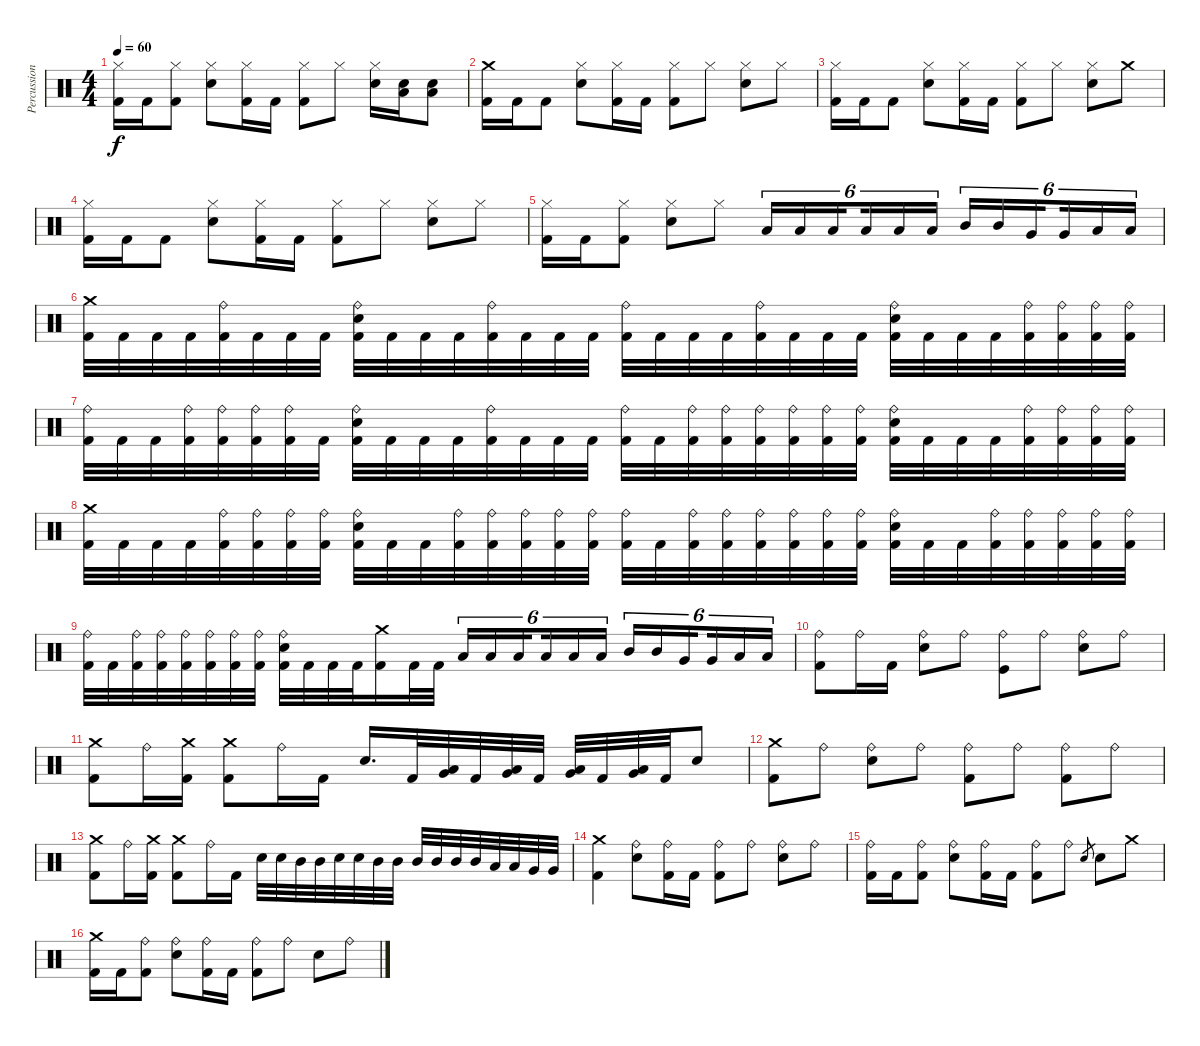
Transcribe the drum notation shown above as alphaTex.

\track ("Percussion" "Percussion") {instrument percussion}
\staff {score}
\articulation defaults
\ts (4 4)
\tempo 60
\clef neutral
\ks c
("Hi-Hat (closed)" "Kick (hit) 2").16{dy f} "Kick (hit) 2".16 ("Hi-Hat (closed)" "Kick (hit) 2").8 ("Hi-Hat (closed)" "Snare (hit) 2").8 ("Hi-Hat (closed)" "Kick (hit) 2").16 "Kick (hit) 2".16 ("Hi-Hat (closed)" "Kick (hit) 2").8 "Hi-Hat (closed)".8 ("Hi-Hat (closed)" "Snare (hit) 2").16 ("Low Tom (hit)" "Snare (hit) 2").16 ("Low Tom (hit)" "Snare (hit) 2").8 |
("Crash medium (hit)" "Kick (hit) 2").16 "Kick (hit) 2".16 "Kick (hit) 2".8 ("Hi-Hat (closed)" "Snare (hit) 2").8 ("Hi-Hat (closed)" "Kick (hit) 2").16 "Kick (hit) 2".16 ("Hi-Hat (closed)" "Kick (hit) 2").8 "Hi-Hat (closed)".8 ("Hi-Hat (closed)" "Snare (hit) 2").8 "Hi-Hat (closed)".8 |
("Hi-Hat (closed)" "Kick (hit) 2").16 "Kick (hit) 2".16 "Kick (hit) 2".8 ("Hi-Hat (closed)" "Snare (hit) 2").8 ("Hi-Hat (closed)" "Kick (hit) 2").16 "Kick (hit) 2".16 ("Hi-Hat (closed)" "Kick (hit) 2").8 "Hi-Hat (closed)".8 ("Hi-Hat (closed)" "Snare (hit) 2").8 "Crash medium (hit)".8 |
("Hi-Hat (closed)" "Kick (hit) 2").16 "Kick (hit) 2".16 "Kick (hit) 2".8 ("Hi-Hat (closed)" "Snare (hit) 2").8 ("Hi-Hat (closed)" "Kick (hit) 2").16 "Kick (hit) 2".16 ("Hi-Hat (closed)" "Kick (hit) 2").8 "Hi-Hat (closed)".8 ("Hi-Hat (closed)" "Snare (hit) 2").8 "Hi-Hat (closed)".8 |
("Hi-Hat (closed)" "Kick (hit) 2").16 "Kick (hit) 2".16 ("Hi-Hat (closed)" "Kick (hit) 2").8 ("Hi-Hat (closed)" "Snare (hit) 2").8 "Hi-Hat (closed)".8 "Low Tom (hit)".16{tu (6 4)} "Low Tom (hit)".16{tu (6 4)} "Low Tom (hit)".16{tu (6 4) beam splitsecondary} "Low Tom (hit)".16{tu (6 4)} "Low Tom (hit)".16{tu (6 4)} "Low Tom (hit)".16{tu (6 4)} "Mid Tom (hit)".16{tu (6 4)} "Mid Tom (hit)".16{tu (6 4)} "Very Low Tom (hit)".16{tu (6 4) beam splitsecondary} "Very Low Tom (hit)".16{tu (6 4)} "Low Floor Tom (hit)".16{tu (6 4)} "Low Floor Tom (hit)".16{tu (6 4)} |
("Crash medium (hit)" "Kick (hit) 2").32 "Kick (hit) 2".32 "Kick (hit) 2".32 "Kick (hit) 2".32 ("Ride (bell)" "Kick (hit) 2").32 "Kick (hit) 2".32 "Kick (hit) 2".32 "Kick (hit) 2".32 ("Ride (bell)" "Snare (hit) 2" "Kick (hit) 2").32 "Kick (hit) 2".32 "Kick (hit) 2".32 "Kick (hit) 2".32 ("Ride (bell)" "Kick (hit) 2").32 "Kick (hit) 2".32 "Kick (hit) 2".32 "Kick (hit) 2".32 ("Ride (bell)" "Kick (hit) 2").32 "Kick (hit) 2".32 "Kick (hit) 2".32 "Kick (hit) 2".32 ("Ride (bell)" "Kick (hit) 2").32 "Kick (hit) 2".32 "Kick (hit) 2".32 "Kick (hit) 2".32 ("Ride (bell)" "Snare (hit) 2" "Kick (hit) 2").32 "Kick (hit) 2".32 "Kick (hit) 2".32 "Kick (hit) 2".32 ("Ride (bell)" "Kick (hit) 2").32 ("Ride (bell)" "Kick (hit) 2").32 ("Ride (bell)" "Kick (hit) 2").32 ("Ride (bell)" "Kick (hit) 2").32 |
("Ride (bell)" "Kick (hit) 2").32 "Kick (hit) 2".32 "Kick (hit) 2".32 ("Ride (bell)" "Kick (hit) 2").32 ("Ride (bell)" "Kick (hit) 2").32 ("Ride (bell)" "Kick (hit) 2").32 ("Ride (bell)" "Kick (hit) 2").32 "Kick (hit) 2".32 ("Ride (bell)" "Snare (hit) 2" "Kick (hit) 2").32 "Kick (hit) 2".32 "Kick (hit) 2".32 "Kick (hit) 2".32 ("Ride (bell)" "Kick (hit) 2").32 "Kick (hit) 2".32 "Kick (hit) 2".32 "Kick (hit) 2".32 ("Ride (bell)" "Kick (hit) 2").32 "Kick (hit) 2".32 ("Ride (bell)" "Kick (hit) 2").32 ("Ride (bell)" "Kick (hit) 2").32 ("Ride (bell)" "Kick (hit) 2").32 ("Ride (bell)" "Kick (hit) 2").32 ("Ride (bell)" "Kick (hit) 2").32 ("Ride (bell)" "Kick (hit) 2").32 ("Ride (bell)" "Snare (hit) 2" "Kick (hit) 2").32 "Kick (hit) 2".32 "Kick (hit) 2".32 "Kick (hit) 2".32 ("Ride (bell)" "Kick (hit) 2").32 ("Ride (bell)" "Kick (hit) 2").32 ("Ride (bell)" "Kick (hit) 2").32 ("Ride (bell)" "Kick (hit) 2").32 |
("Crash medium (hit)" "Kick (hit) 2").32 "Kick (hit) 2".32 "Kick (hit) 2".32 "Kick (hit) 2".32 ("Ride (bell)" "Kick (hit) 2").32 ("Ride (bell)" "Kick (hit) 2").32 ("Ride (bell)" "Kick (hit) 2").32 ("Ride (bell)" "Kick (hit) 2").32 ("Ride (bell)" "Snare (hit) 2" "Kick (hit) 2").32 "Kick (hit) 2".32 "Kick (hit) 2".32 ("Ride (bell)" "Kick (hit) 2").32 ("Ride (bell)" "Kick (hit) 2").32 ("Ride (bell)" "Kick (hit) 2").32 ("Ride (bell)" "Kick (hit) 2").32 ("Ride (bell)" "Kick (hit) 2").32 ("Ride (bell)" "Kick (hit) 2").32 "Kick (hit) 2".32 ("Ride (bell)" "Kick (hit) 2").32 ("Ride (bell)" "Kick (hit) 2").32 ("Ride (bell)" "Kick (hit) 2").32 ("Ride (bell)" "Kick (hit) 2").32 ("Ride (bell)" "Kick (hit) 2").32 ("Ride (bell)" "Kick (hit) 2").32 ("Ride (bell)" "Snare (hit) 2" "Kick (hit) 2").32 "Kick (hit) 2".32 "Kick (hit) 2".32 ("Ride (bell)" "Kick (hit) 2").32 ("Ride (bell)" "Kick (hit) 2").32 ("Ride (bell)" "Kick (hit) 2").32 ("Ride (bell)" "Kick (hit) 2").32 ("Ride (bell)" "Kick (hit) 2").32 |
("Ride (bell)" "Kick (hit) 2").32 "Kick (hit) 2".32 ("Ride (bell)" "Kick (hit) 2").32 ("Ride (bell)" "Kick (hit) 2").32 ("Ride (bell)" "Kick (hit) 2").32 ("Ride (bell)" "Kick (hit) 2").32 ("Ride (bell)" "Kick (hit) 2").32 ("Ride (bell)" "Kick (hit) 2").32 ("Ride (bell)" "Snare (hit) 2" "Kick (hit) 2").32 "Kick (hit) 2".32 "Kick (hit) 2".32 "Kick (hit) 2".32 ("Crash medium (hit)" "Kick (hit) 2").16 "Kick (hit) 2".32 "Kick (hit) 2".32 "Low Tom (hit)".16{tu (6 4)} "Low Tom (hit)".16{tu (6 4)} "Low Tom (hit)".16{tu (6 4) beam splitsecondary} "Low Tom (hit)".16{tu (6 4)} "Low Tom (hit)".16{tu (6 4)} "Low Tom (hit)".16{tu (6 4)} "Mid Tom (hit)".16{tu (6 4)} "Mid Tom (hit)".16{tu (6 4)} "Very Low Tom (hit)".16{tu (6 4) beam splitsecondary} "Very Low Tom (hit)".16{tu (6 4)} "Low Floor Tom (hit)".16{tu (6 4)} "Low Floor Tom (hit)".16{tu (6 4)} |
("Ride (bell)" "Kick (hit) 2").8 "Ride (bell)".16 "Kick (hit) 2".16 ("Ride (bell)" "Snare (hit) 2").8 "Ride (bell)".8 ("Ride (bell)" "Kick (hit)").8 "Ride (bell)".8 ("Ride (bell)" "Snare (hit) 2").8 "Ride (bell)".8 |
("Crash medium (hit)" "Kick (hit) 2").8 "Ride (bell)".16 ("Crash medium (hit)" "Kick (hit) 2").16 ("Crash medium (hit)" "Kick (hit) 2").8 "Ride (bell)".16 "Kick (hit) 2".16 "Snare (hit) 2".16{d} "Kick (hit) 2".32 ("Low Tom (hit)" "Very Low Tom (hit)").32 "Kick (hit) 2".32 ("Low Tom (hit)" "Very Low Tom (hit)").32 "Kick (hit) 2".32 ("Low Tom (hit)" "Very Low Tom (hit)").32 "Kick (hit) 2".32 ("Low Tom (hit)" "Very Low Tom (hit)").32 "Kick (hit) 2".32 "Snare (hit) 2".8 |
("Crash medium (hit)" "Kick (hit) 2").8 "Ride (bell)".8 ("Ride (bell)" "Snare (hit) 2").8 "Ride (bell)".8 ("Ride (bell)" "Kick (hit) 2").8 "Ride (bell)".8 ("Ride (bell)" "Kick (hit) 2").8 "Ride (bell)".8 |
("Crash medium (hit)" "Kick (hit) 2").8 "Ride (bell)".16 ("Crash medium (hit)" "Kick (hit) 2").16 ("Crash medium (hit)" "Kick (hit) 2").8 "Ride (bell)".16 "Kick (hit) 2".16 "Snare (hit) 2".32 "Snare (hit) 2".32 "Mid Tom (hit)".32 "Mid Tom (hit)".32 "Snare (hit) 2".32 "Snare (hit) 2".32 "Mid Tom (hit)".32 "Mid Tom (hit)".32 "Mid Tom (hit)".32 "Mid Tom (hit)".32 "Mid Tom (hit)".32 "Mid Tom (hit)".32 "Low Tom (hit)".32 "Low Tom (hit)".32 "Very Low Tom (hit)".32 "Very Low Tom (hit)".32 |
("Crash medium (hit)" "Kick (hit) 2").4 ("Ride (bell)" "Snare (hit) 2").8 ("Ride (bell)" "Kick (hit) 2").16 "Kick (hit) 2".16 ("Ride (bell)" "Kick (hit) 2").8 "Ride (bell)".8 ("Ride (bell)" "Snare (hit) 2").8 "Ride (bell)".8 |
("Ride (bell)" "Kick (hit) 2").16 "Kick (hit) 2".16 ("Ride (bell)" "Kick (hit) 2").8 ("Ride (bell)" "Snare (hit) 2").8 ("Ride (bell)" "Kick (hit) 2").16 "Kick (hit) 2".16 ("Ride (bell)" "Kick (hit) 2").8 "Ride (bell)".8 "Snare (hit) 2".8{gr} "Snare (hit) 2".8 "Crash medium (hit)".8 |
("Crash medium (hit)" "Kick (hit) 2").16 "Kick (hit) 2".16 ("Ride (bell)" "Kick (hit) 2").8 ("Ride (bell)" "Snare (hit) 2").8 ("Ride (bell)" "Kick (hit) 2").16 "Kick (hit) 2".16 ("Ride (bell)" "Kick (hit) 2").8 "Ride (bell)".8 "Snare (hit) 2".8 "Ride (bell)".8
